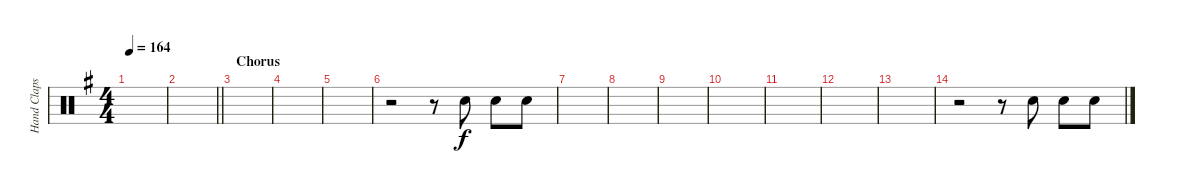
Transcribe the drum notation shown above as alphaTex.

\track ("Hand Claps" "Hand Claps") {instrument percussion}
\staff {score}
\articulation defaults
\ts (4 4)
\tempo 164
\clef neutral
\ks eminor
|
\barLineRight lightlight
|
\section ("" "Chorus")
|
|
|
r.2 r.8 "Hand Clap (hit)".8 "Hand Clap (hit)".8 "Hand Clap (hit)".8 |
|
|
|
|
|
|
|
r.2 r.8 "Hand Clap (hit)".8 "Hand Clap (hit)".8 "Hand Clap (hit)".8
